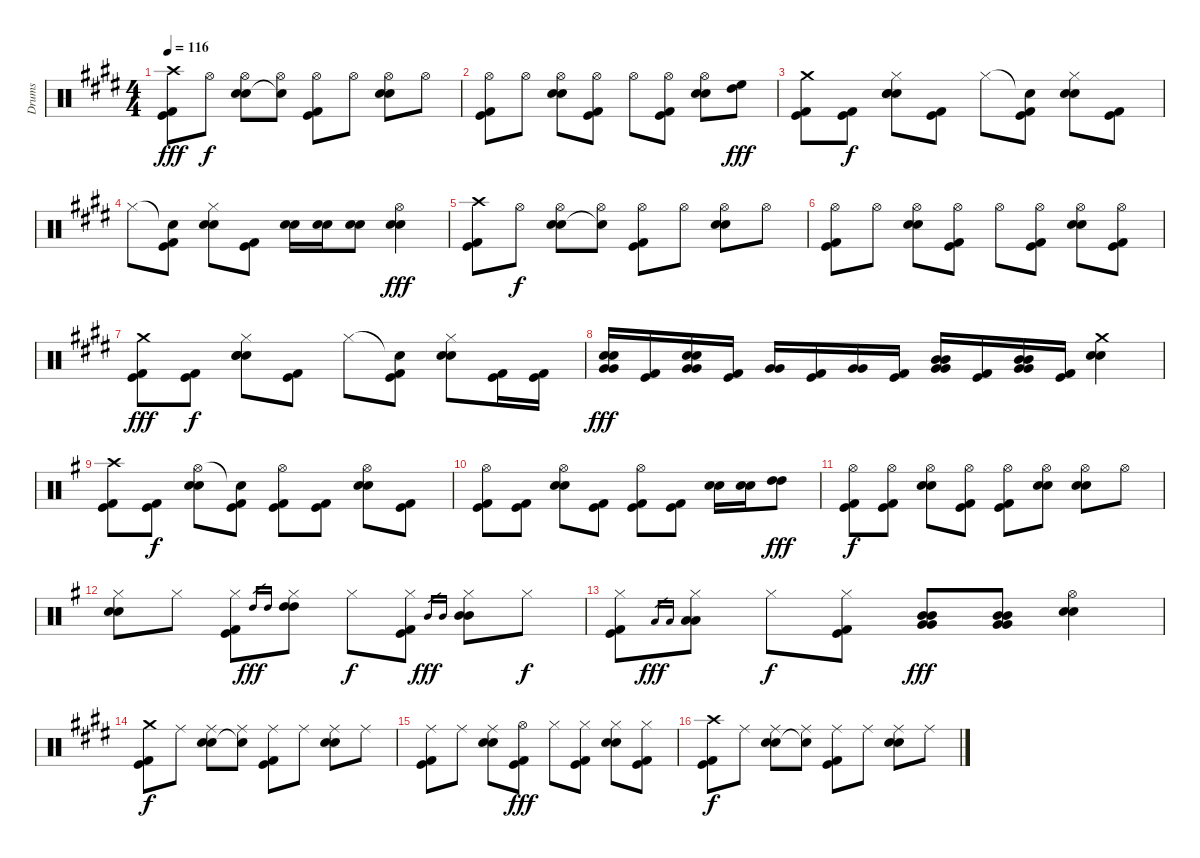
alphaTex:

\track ("Drums" "Drums") {instrument percussion}
\staff {score}
\articulation defaults
\ts (4 4)
\tempo 116
\clef neutral
\ks e
("Crash high (hit)" "Kick (hit)" "Kick (hit) 2").8{dy fff} "Hi-Hat (open)".8{dy f} ("Hi-Hat (open)" "Electric Snare (hit)" "Snare (hit) 2").8 ("Hi-Hat (open)" "Snare (hit)"{t}).8 ("Hi-Hat (open)" "Kick (hit)" "Kick (hit) 2").8 "Hi-Hat (open)".8 ("Hi-Hat (open)" "Electric Snare (hit)" "Snare (hit) 2").8 "Hi-Hat (open)".8 |
("Hi-Hat (open)" "Kick (hit)" "Kick (hit) 2").8 "Hi-Hat (open)".8 ("Hi-Hat (open)" "Electric Snare (hit)" "Snare (hit) 2").8 ("Hi-Hat (open)" "Kick (hit)" "Kick (hit) 2").8 "Hi-Hat (open)".8 ("Hi-Hat (open)" "Kick (hit)" "Kick (hit) 2").8 ("Hi-Hat (open)" "Electric Snare (hit)" "Snare (hit) 2").8 ("High Floor Tom (hit)" "High Tom (hit)").8{dy fff} |
("Crash medium (hit)" "Kick (hit)" "Kick (hit) 2").8 ("Kick (hit)" "Kick (hit) 2").8{dy f} ("Hi-Hat (closed)" "Electric Snare (hit)" "Snare (hit) 2" "Snare (hit)").8 ("Kick (hit)" "Kick (hit) 2").8 "Hi-Hat (closed)".8 ("Snare (hit)"{t} "Kick (hit)" "Kick (hit) 2").8 ("Hi-Hat (closed)" "Electric Snare (hit)" "Snare (hit) 2").8 ("Kick (hit)" "Kick (hit) 2").8 |
"Hi-Hat (closed)".8 ("Snare (hit)"{t} "Kick (hit)" "Kick (hit) 2").8 ("Hi-Hat (closed)" "Electric Snare (hit)" "Snare (hit) 2").8 ("Kick (hit)" "Kick (hit) 2").8 ("Electric Snare (hit)" "Snare (hit) 2").16 ("Electric Snare (hit)" "Snare (hit) 2").16 ("Electric Snare (hit)" "Snare (hit) 2").8 ("Hi-Hat (open)" "Electric Snare (hit)" "Snare (hit) 2").4{dy fff} |
("Crash high (hit)" "Kick (hit)" "Kick (hit) 2").8 "Hi-Hat (open)".8{dy f} ("Hi-Hat (open)" "Electric Snare (hit)" "Snare (hit) 2").8 ("Hi-Hat (open)" "Snare (hit)"{t}).8 ("Hi-Hat (open)" "Kick (hit)" "Kick (hit) 2").8 "Hi-Hat (open)".8 ("Hi-Hat (open)" "Electric Snare (hit)" "Snare (hit) 2").8 "Hi-Hat (open)".8 |
("Hi-Hat (open)" "Kick (hit)" "Kick (hit) 2").8 "Hi-Hat (open)".8 ("Hi-Hat (open)" "Electric Snare (hit)" "Snare (hit) 2").8 ("Hi-Hat (open)" "Kick (hit)" "Kick (hit) 2").8 "Hi-Hat (open)".8 ("Hi-Hat (open)" "Kick (hit)" "Kick (hit) 2").8 ("Hi-Hat (open)" "Electric Snare (hit)" "Snare (hit) 2").8 ("Hi-Hat (open)" "Kick (hit)" "Kick (hit) 2").8 |
("Crash medium (hit)" "Kick (hit)" "Kick (hit) 2").8{dy fff} ("Kick (hit)" "Kick (hit) 2").8{dy f} ("Hi-Hat (closed)" "Electric Snare (hit)" "Snare (hit) 2" "Snare (hit)").8 ("Kick (hit)" "Kick (hit) 2").8 "Hi-Hat (closed)".8 ("Snare (hit)"{t} "Kick (hit)" "Kick (hit) 2").8 ("Hi-Hat (closed)" "Electric Snare (hit)" "Snare (hit) 2").8 ("Kick (hit)" "Kick (hit) 2").16 ("Kick (hit)" "Kick (hit) 2").16 |
("Electric Snare (hit)" "Snare (hit) 2" "Very Low Tom (hit)" "Very Low Tom (hit)").16{dy fff} ("Kick (hit)" "Kick (hit) 2").16 ("Electric Snare (hit)" "Snare (hit) 2" "Very Low Tom (hit)" "Very Low Tom (hit)").16 ("Kick (hit)" "Kick (hit) 2").16 ("Very Low Tom (hit)" "Very Low Tom (hit)").16 ("Kick (hit)" "Kick (hit) 2").16 ("Very Low Tom (hit)" "Very Low Tom (hit)").16 ("Kick (hit)" "Kick (hit) 2").16 ("Mid Tom (hit)" "Mid Tom (hit)" "Very Low Tom (hit)" "Very Low Tom (hit)").16 ("Kick (hit)" "Kick (hit) 2").16 ("Mid Tom (hit)" "Mid Tom (hit)" "Very Low Tom (hit)" "Very Low Tom (hit)").16 ("Kick (hit)" "Kick (hit) 2").16 ("Electric Snare (hit)" "Snare (hit) 2" "Crash medium (hit)").4 |
\ks g
("Crash high (hit)" "Kick (hit)" "Kick (hit) 2").8 ("Kick (hit)" "Kick (hit) 2").8{dy f} ("Hi-Hat (open)" "Electric Snare (hit)" "Snare (hit) 2").8 ("Snare (hit)"{t} "Kick (hit)" "Kick (hit) 2").8 ("Hi-Hat (open)" "Kick (hit)" "Kick (hit) 2").8 ("Kick (hit)" "Kick (hit) 2").8 ("Hi-Hat (open)" "Electric Snare (hit)" "Snare (hit) 2").8 ("Kick (hit)" "Kick (hit) 2").8 |
("Hi-Hat (open)" "Kick (hit)" "Kick (hit) 2").8 ("Kick (hit)" "Kick (hit) 2").8 ("Hi-Hat (open)" "Electric Snare (hit)" "Snare (hit) 2").8 ("Kick (hit)" "Kick (hit) 2").8 ("Hi-Hat (open)" "Kick (hit)" "Kick (hit) 2").8 ("Kick (hit)" "Kick (hit) 2").8 ("Electric Snare (hit)" "Snare (hit) 2").16 ("Electric Snare (hit)" "Snare (hit) 2").16 ("High Tom (hit)" "High Tom (hit)").8{dy fff} |
("Hi-Hat (open)" "Kick (hit)" "Kick (hit) 2").8{dy f} ("Hi-Hat (open)" "Kick (hit)" "Kick (hit) 2").8 ("Hi-Hat (open)" "Electric Snare (hit)" "Snare (hit) 2").8 ("Hi-Hat (open)" "Kick (hit)" "Kick (hit) 2").8 ("Hi-Hat (open)" "Kick (hit)" "Kick (hit) 2").8 ("Hi-Hat (open)" "Electric Snare (hit)" "Snare (hit) 2").8 ("Hi-Hat (open)" "Electric Snare (hit)" "Snare (hit) 2").8 "Hi-Hat (open)".8 |
("Hi-Hat (closed)" "Electric Snare (hit)" "Snare (hit) 2").8 "Hi-Hat (closed)".8 ("Hi-Hat (closed)" "Kick (hit)" "Kick (hit) 2").8 "High Tom (hit)".16{gr dy fff} "High Tom (hit)".16{gr} ("Hi-Hat (closed)" "High Tom (hit)" "High Tom (hit)").8 "Hi-Hat (closed)".8{dy f} ("Hi-Hat (closed)" "Kick (hit)" "Kick (hit) 2").8 "Mid Tom (hit)".16{gr dy fff} "Mid Tom (hit)".16{gr} ("Hi-Hat (closed)" "Mid Tom (hit)" "Mid Tom (hit)").8 "Hi-Hat (closed)".8{dy f} |
("Hi-Hat (closed)" "Kick (hit)" "Kick (hit) 2").8 "Low Tom (hit)".16{gr dy fff} "Low Tom (hit)".16{gr} ("Hi-Hat (closed)" "Low Tom (hit)" "Low Tom (hit)").8 "Hi-Hat (closed)".8{dy f} ("Hi-Hat (closed)" "Kick (hit)" "Kick (hit) 2").8 ("Very Low Tom (hit)" "Very Low Tom (hit)" "Mid Tom (hit)" "Mid Tom (hit)").8{dy fff} ("Very Low Tom (hit)" "Very Low Tom (hit)" "Mid Tom (hit)" "Mid Tom (hit)").8 ("Hi-Hat (open)" "Electric Snare (hit)" "Snare (hit) 2").4 |
\ks e
("Crash medium (hit)" "Kick (hit)" "Kick (hit) 2").8{dy f} "Ride (middle)".8 ("Ride (middle)" "Electric Snare (hit)" "Snare (hit) 2").8 ("Ride (middle)" "Snare (hit)"{t}).8 ("Ride (middle)" "Kick (hit)" "Kick (hit) 2").8 "Ride (middle)".8 ("Ride (middle)" "Electric Snare (hit)" "Snare (hit) 2").8 "Ride (middle)".8 |
("Ride (middle)" "Kick (hit)" "Kick (hit) 2").8 "Ride (middle)".8 ("Ride (middle)" "Electric Snare (hit)" "Snare (hit) 2").8 ("Hi-Hat (open)" "Kick (hit)" "Kick (hit) 2").8{dy fff} "Hi-Hat (closed)".8 ("Hi-Hat (closed)" "Kick (hit)" "Kick (hit) 2").8 ("Hi-Hat (closed)" "Electric Snare (hit)" "Snare (hit) 2").8 ("Hi-Hat (closed)" "Kick (hit)" "Kick (hit) 2").8 |
("Crash high (hit)" "Kick (hit)" "Kick (hit) 2").8{dy f} "Ride (middle)".8 ("Ride (middle)" "Electric Snare (hit)" "Snare (hit) 2").8 ("Ride (middle)" "Snare (hit)"{t}).8 ("Ride (middle)" "Kick (hit)" "Kick (hit) 2").8 "Ride (middle)".8 ("Ride (middle)" "Electric Snare (hit)" "Snare (hit) 2").8 "Ride (middle)".8
